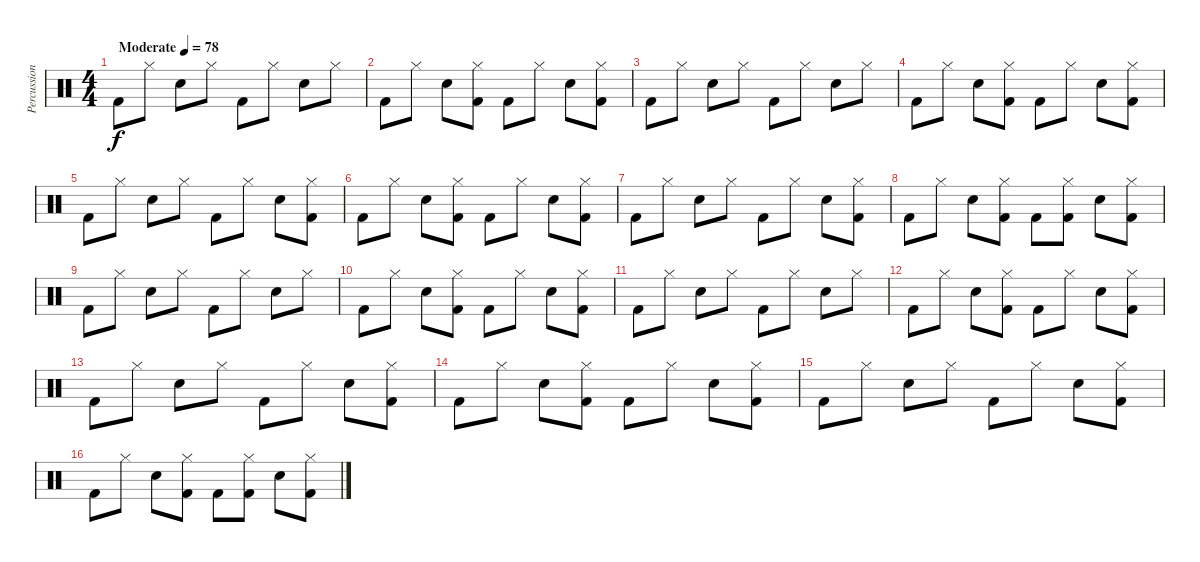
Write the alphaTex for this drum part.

\track ("Percussion" "Percussion") {instrument percussion}
\staff {score}
\articulation defaults
\ts (4 4)
\tempo (78 "Moderate")
\clef neutral
\ks c "Kick (hit) 2".8{dy f} "Hi-Hat (closed)".8 "Electric Snare (hit)".8 "Hi-Hat (closed)".8 "Kick (hit) 2".8 "Hi-Hat (closed)".8 "Electric Snare (hit)".8 "Hi-Hat (closed)".8
|
"Kick (hit) 2".8 "Hi-Hat (closed)".8 "Electric Snare (hit)".8 ("Hi-Hat (closed)" "Kick (hit) 2").8 "Kick (hit) 2".8 "Hi-Hat (closed)".8 "Electric Snare (hit)".8 ("Hi-Hat (closed)" "Kick (hit) 2").8 |
"Kick (hit) 2".8 "Hi-Hat (closed)".8 "Electric Snare (hit)".8 "Hi-Hat (closed)".8 "Kick (hit) 2".8 "Hi-Hat (closed)".8 "Electric Snare (hit)".8 "Hi-Hat (closed)".8 |
"Kick (hit) 2".8 "Hi-Hat (closed)".8 "Electric Snare (hit)".8 ("Hi-Hat (closed)" "Kick (hit) 2").8 "Kick (hit) 2".8 "Hi-Hat (closed)".8 "Electric Snare (hit)".8 ("Hi-Hat (closed)" "Kick (hit) 2").8 |
"Kick (hit) 2".8 "Hi-Hat (closed)".8 "Electric Snare (hit)".8 "Hi-Hat (closed)".8 "Kick (hit) 2".8 "Hi-Hat (closed)".8 "Electric Snare (hit)".8 ("Hi-Hat (closed)" "Kick (hit) 2").8 |
"Kick (hit) 2".8 "Hi-Hat (closed)".8 "Electric Snare (hit)".8 ("Hi-Hat (closed)" "Kick (hit) 2").8 "Kick (hit) 2".8 "Hi-Hat (closed)".8 "Electric Snare (hit)".8 ("Hi-Hat (closed)" "Kick (hit) 2").8 |
"Kick (hit) 2".8 "Hi-Hat (closed)".8 "Electric Snare (hit)".8 "Hi-Hat (closed)".8 "Kick (hit) 2".8 "Hi-Hat (closed)".8 "Electric Snare (hit)".8 ("Hi-Hat (closed)" "Kick (hit) 2").8 |
"Kick (hit) 2".8 "Hi-Hat (closed)".8 "Electric Snare (hit)".8 ("Hi-Hat (closed)" "Kick (hit) 2").8 "Kick (hit) 2".8 ("Hi-Hat (closed)" "Kick (hit) 2").8 "Electric Snare (hit)".8 ("Hi-Hat (closed)" "Kick (hit) 2").8 |
"Kick (hit) 2".8 "Hi-Hat (closed)".8 "Electric Snare (hit)".8 "Hi-Hat (closed)".8 "Kick (hit) 2".8 "Hi-Hat (closed)".8 "Electric Snare (hit)".8 "Hi-Hat (closed)".8 |
"Kick (hit) 2".8 "Hi-Hat (closed)".8 "Electric Snare (hit)".8 ("Hi-Hat (closed)" "Kick (hit) 2").8 "Kick (hit) 2".8 "Hi-Hat (closed)".8 "Electric Snare (hit)".8 ("Hi-Hat (closed)" "Kick (hit) 2").8 |
"Kick (hit) 2".8 "Hi-Hat (closed)".8 "Electric Snare (hit)".8 "Hi-Hat (closed)".8 "Kick (hit) 2".8 "Hi-Hat (closed)".8 "Electric Snare (hit)".8 "Hi-Hat (closed)".8 |
"Kick (hit) 2".8 "Hi-Hat (closed)".8 "Electric Snare (hit)".8 ("Hi-Hat (closed)" "Kick (hit) 2").8 "Kick (hit) 2".8 "Hi-Hat (closed)".8 "Electric Snare (hit)".8 ("Hi-Hat (closed)" "Kick (hit) 2").8 |
"Kick (hit) 2".8 "Hi-Hat (closed)".8 "Electric Snare (hit)".8 "Hi-Hat (closed)".8 "Kick (hit) 2".8 "Hi-Hat (closed)".8 "Electric Snare (hit)".8 ("Hi-Hat (closed)" "Kick (hit) 2").8 |
"Kick (hit) 2".8 "Hi-Hat (closed)".8 "Electric Snare (hit)".8 ("Hi-Hat (closed)" "Kick (hit) 2").8 "Kick (hit) 2".8 "Hi-Hat (closed)".8 "Electric Snare (hit)".8 ("Hi-Hat (closed)" "Kick (hit) 2").8 |
"Kick (hit) 2".8 "Hi-Hat (closed)".8 "Electric Snare (hit)".8 "Hi-Hat (closed)".8 "Kick (hit) 2".8 "Hi-Hat (closed)".8 "Electric Snare (hit)".8 ("Hi-Hat (closed)" "Kick (hit) 2").8 |
"Kick (hit) 2".8 "Hi-Hat (closed)".8 "Electric Snare (hit)".8 ("Hi-Hat (closed)" "Kick (hit) 2").8 "Kick (hit) 2".8 ("Hi-Hat (closed)" "Kick (hit) 2").8 "Electric Snare (hit)".8 ("Hi-Hat (closed)" "Kick (hit) 2").8
